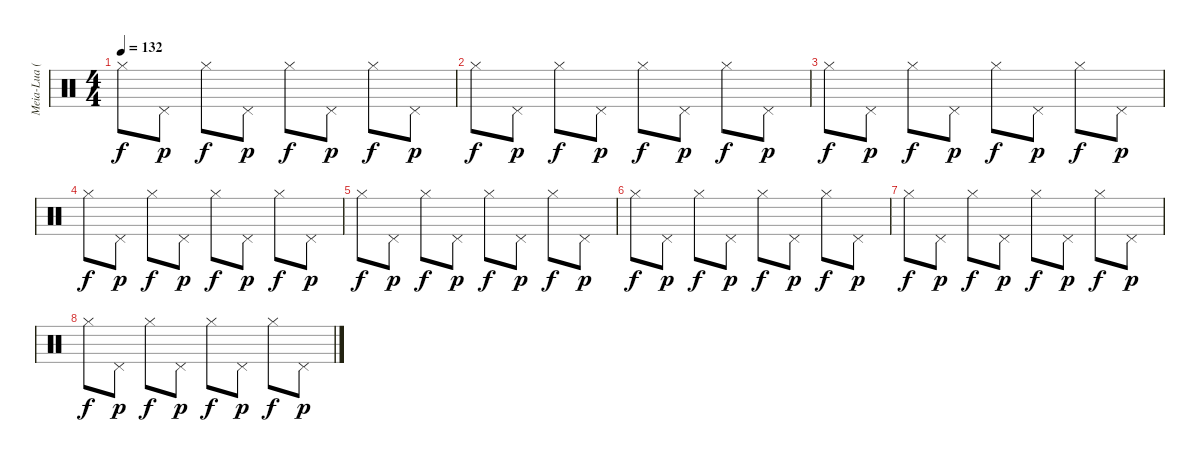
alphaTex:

\track ("Meia-Lua (hehe)" "Meia-Lua (") {instrument percussion}
\staff {score}
\articulation defaults
\ts (4 4)
\tempo 132
\clef neutral
\ks c "Hi-Hat (closed)".8{dy f} "Pedal Hi-Hat (hit)".8{dy p} "Hi-Hat (closed)".8{dy f} "Pedal Hi-Hat (hit)".8{dy p} "Hi-Hat (closed)".8{dy f} "Pedal Hi-Hat (hit)".8{dy p} "Hi-Hat (closed)".8{dy f} "Pedal Hi-Hat (hit)".8{dy p}
|
"Hi-Hat (closed)".8{dy f} "Pedal Hi-Hat (hit)".8{dy p} "Hi-Hat (closed)".8{dy f} "Pedal Hi-Hat (hit)".8{dy p} "Hi-Hat (closed)".8{dy f} "Pedal Hi-Hat (hit)".8{dy p} "Hi-Hat (closed)".8{dy f} "Pedal Hi-Hat (hit)".8{dy p} |
"Hi-Hat (closed)".8{dy f} "Pedal Hi-Hat (hit)".8{dy p} "Hi-Hat (closed)".8{dy f} "Pedal Hi-Hat (hit)".8{dy p} "Hi-Hat (closed)".8{dy f} "Pedal Hi-Hat (hit)".8{dy p} "Hi-Hat (closed)".8{dy f} "Pedal Hi-Hat (hit)".8{dy p} |
"Hi-Hat (closed)".8{dy f} "Pedal Hi-Hat (hit)".8{dy p} "Hi-Hat (closed)".8{dy f} "Pedal Hi-Hat (hit)".8{dy p} "Hi-Hat (closed)".8{dy f} "Pedal Hi-Hat (hit)".8{dy p} "Hi-Hat (closed)".8{dy f} "Pedal Hi-Hat (hit)".8{dy p} |
"Hi-Hat (closed)".8{dy f} "Pedal Hi-Hat (hit)".8{dy p} "Hi-Hat (closed)".8{dy f} "Pedal Hi-Hat (hit)".8{dy p} "Hi-Hat (closed)".8{dy f} "Pedal Hi-Hat (hit)".8{dy p} "Hi-Hat (closed)".8{dy f} "Pedal Hi-Hat (hit)".8{dy p} |
"Hi-Hat (closed)".8{dy f} "Pedal Hi-Hat (hit)".8{dy p} "Hi-Hat (closed)".8{dy f} "Pedal Hi-Hat (hit)".8{dy p} "Hi-Hat (closed)".8{dy f} "Pedal Hi-Hat (hit)".8{dy p} "Hi-Hat (closed)".8{dy f} "Pedal Hi-Hat (hit)".8{dy p} |
"Hi-Hat (closed)".8{dy f} "Pedal Hi-Hat (hit)".8{dy p} "Hi-Hat (closed)".8{dy f} "Pedal Hi-Hat (hit)".8{dy p} "Hi-Hat (closed)".8{dy f} "Pedal Hi-Hat (hit)".8{dy p} "Hi-Hat (closed)".8{dy f} "Pedal Hi-Hat (hit)".8{dy p} |
"Hi-Hat (closed)".8{dy f} "Pedal Hi-Hat (hit)".8{dy p} "Hi-Hat (closed)".8{dy f} "Pedal Hi-Hat (hit)".8{dy p} "Hi-Hat (closed)".8{dy f} "Pedal Hi-Hat (hit)".8{dy p} "Hi-Hat (closed)".8{dy f} "Pedal Hi-Hat (hit)".8{dy p}
